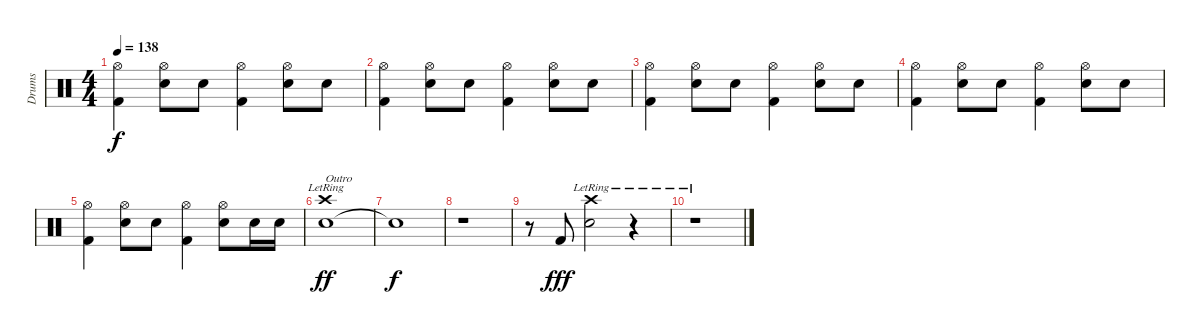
\track ("Drums" "Drums") {instrument percussion}
\staff {score}
\articulation defaults
\ts (4 4)
\tempo 138
\clef neutral
\ks c
("Kick (hit) 2" "Hi-Hat (open)").4{dy f} ("Electric Snare (hit)" "Hi-Hat (open)").8 "Electric Snare (hit)".8 ("Kick (hit) 2" "Hi-Hat (open)").4 ("Electric Snare (hit)" "Hi-Hat (open)").8 "Electric Snare (hit)".8 |
("Kick (hit) 2" "Hi-Hat (open)").4 ("Electric Snare (hit)" "Hi-Hat (open)").8 "Electric Snare (hit)".8 ("Kick (hit) 2" "Hi-Hat (open)").4 ("Electric Snare (hit)" "Hi-Hat (open)").8 "Electric Snare (hit)".8 |
("Kick (hit) 2" "Hi-Hat (open)").4 ("Electric Snare (hit)" "Hi-Hat (open)").8 "Electric Snare (hit)".8 ("Kick (hit) 2" "Hi-Hat (open)").4 ("Electric Snare (hit)" "Hi-Hat (open)").8 "Electric Snare (hit)".8 |
("Kick (hit) 2" "Hi-Hat (open)").4 ("Electric Snare (hit)" "Hi-Hat (open)").8 "Electric Snare (hit)".8 ("Kick (hit) 2" "Hi-Hat (open)").4 ("Electric Snare (hit)" "Hi-Hat (open)").8 "Electric Snare (hit)".8 |
("Kick (hit) 2" "Hi-Hat (open)").4 ("Electric Snare (hit)" "Hi-Hat (open)").8 "Electric Snare (hit)".8 ("Kick (hit) 2" "Hi-Hat (open)").4 ("Electric Snare (hit)" "Hi-Hat (open)").8 "Electric Snare (hit)".16 "Electric Snare (hit)".16 |
("Electric Snare (hit)" "Crash high (hit)"{lr}).1{txt "Outro" dy ff} |
"Snare (hit)"{t}.1{dy f} |
r.1 |
r.8 "Kick (hit) 2".8{dy fff volume 16} ("Electric Snare (hit)" "Crash high (hit)"{lr}).2 r.4 |
r.1
